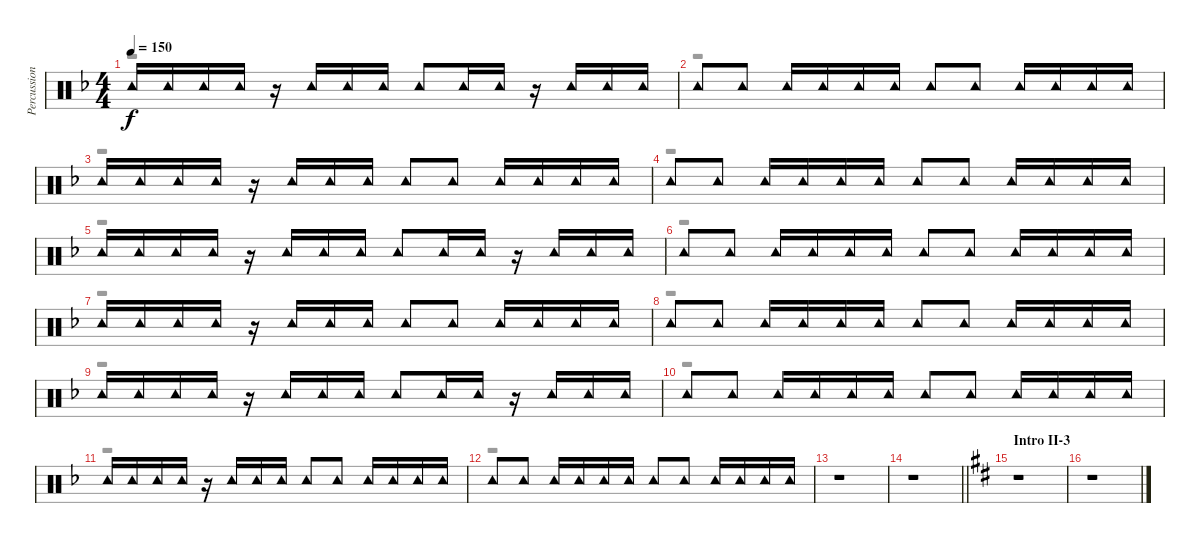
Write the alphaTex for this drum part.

\track ("Percussion" "Percussion") {instrument percussion}
\staff {score}
\articulation defaults
\voice
\ts (4 4)
\tempo 150
\clef neutral
\ks f "Tambourine (hit)".16{dy f} "Tambourine (hit)".16 "Tambourine (hit)".16 "Tambourine (hit)".16
r.16 "Tambourine (hit)".16 "Tambourine (hit)".16 "Tambourine (hit)".16 "Tambourine (hit)".8 "Tambourine (hit)".16 "Tambourine (hit)".16 r.16 "Tambourine (hit)".16 "Tambourine (hit)".16 "Tambourine (hit)".16 |
"Tambourine (hit)".8 "Tambourine (hit)".8 "Tambourine (hit)".16 "Tambourine (hit)".16 "Tambourine (hit)".16 "Tambourine (hit)".16 "Tambourine (hit)".8 "Tambourine (hit)".8 "Tambourine (hit)".16 "Tambourine (hit)".16 "Tambourine (hit)".16 "Tambourine (hit)".16 |
"Tambourine (hit)".16 "Tambourine (hit)".16 "Tambourine (hit)".16 "Tambourine (hit)".16 r.16 "Tambourine (hit)".16 "Tambourine (hit)".16 "Tambourine (hit)".16 "Tambourine (hit)".8 "Tambourine (hit)".8 "Tambourine (hit)".16 "Tambourine (hit)".16 "Tambourine (hit)".16 "Tambourine (hit)".16 |
"Tambourine (hit)".8 "Tambourine (hit)".8 "Tambourine (hit)".16 "Tambourine (hit)".16 "Tambourine (hit)".16 "Tambourine (hit)".16 "Tambourine (hit)".8 "Tambourine (hit)".8 "Tambourine (hit)".16 "Tambourine (hit)".16 "Tambourine (hit)".16 "Tambourine (hit)".16 |
"Tambourine (hit)".16 "Tambourine (hit)".16 "Tambourine (hit)".16 "Tambourine (hit)".16 r.16 "Tambourine (hit)".16 "Tambourine (hit)".16 "Tambourine (hit)".16 "Tambourine (hit)".8 "Tambourine (hit)".16 "Tambourine (hit)".16 r.16 "Tambourine (hit)".16 "Tambourine (hit)".16 "Tambourine (hit)".16 |
"Tambourine (hit)".8 "Tambourine (hit)".8 "Tambourine (hit)".16 "Tambourine (hit)".16 "Tambourine (hit)".16 "Tambourine (hit)".16 "Tambourine (hit)".8 "Tambourine (hit)".8 "Tambourine (hit)".16 "Tambourine (hit)".16 "Tambourine (hit)".16 "Tambourine (hit)".16 |
"Tambourine (hit)".16 "Tambourine (hit)".16 "Tambourine (hit)".16 "Tambourine (hit)".16 r.16 "Tambourine (hit)".16 "Tambourine (hit)".16 "Tambourine (hit)".16 "Tambourine (hit)".8 "Tambourine (hit)".8 "Tambourine (hit)".16 "Tambourine (hit)".16 "Tambourine (hit)".16 "Tambourine (hit)".16 |
"Tambourine (hit)".8 "Tambourine (hit)".8 "Tambourine (hit)".16 "Tambourine (hit)".16 "Tambourine (hit)".16 "Tambourine (hit)".16 "Tambourine (hit)".8 "Tambourine (hit)".8 "Tambourine (hit)".16 "Tambourine (hit)".16 "Tambourine (hit)".16 "Tambourine (hit)".16 |
"Tambourine (hit)".16 "Tambourine (hit)".16 "Tambourine (hit)".16 "Tambourine (hit)".16 r.16 "Tambourine (hit)".16 "Tambourine (hit)".16 "Tambourine (hit)".16 "Tambourine (hit)".8 "Tambourine (hit)".16 "Tambourine (hit)".16 r.16 "Tambourine (hit)".16 "Tambourine (hit)".16 "Tambourine (hit)".16 |
"Tambourine (hit)".8 "Tambourine (hit)".8 "Tambourine (hit)".16 "Tambourine (hit)".16 "Tambourine (hit)".16 "Tambourine (hit)".16 "Tambourine (hit)".8 "Tambourine (hit)".8 "Tambourine (hit)".16 "Tambourine (hit)".16 "Tambourine (hit)".16 "Tambourine (hit)".16 |
"Tambourine (hit)".16 "Tambourine (hit)".16 "Tambourine (hit)".16 "Tambourine (hit)".16 r.16 "Tambourine (hit)".16 "Tambourine (hit)".16 "Tambourine (hit)".16 "Tambourine (hit)".8 "Tambourine (hit)".8 "Tambourine (hit)".16 "Tambourine (hit)".16 "Tambourine (hit)".16 "Tambourine (hit)".16 |
"Tambourine (hit)".8 "Tambourine (hit)".8 "Tambourine (hit)".16 "Tambourine (hit)".16 "Tambourine (hit)".16 "Tambourine (hit)".16 "Tambourine (hit)".8 "Tambourine (hit)".8 "Tambourine (hit)".16 "Tambourine (hit)".16 "Tambourine (hit)".16 "Tambourine (hit)".16 |
r.1 |
\barLineRight lightlight
r.1 |
\section ("" "Intro II-3")
\ks d
r.1 |
r.1
\voice
\clef neutral
\ottava regular
\simile none
\ks f
r.1{dy f} |
r.1 |
r.1 |
r.1 |
r.1 |
r.1 |
r.1 |
r.1 |
r.1 |
r.1 |
r.1 |
r.1 |
r.1 |
\barLineRight lightlight
r.1 |
\ks d
r.1 |
r.1
